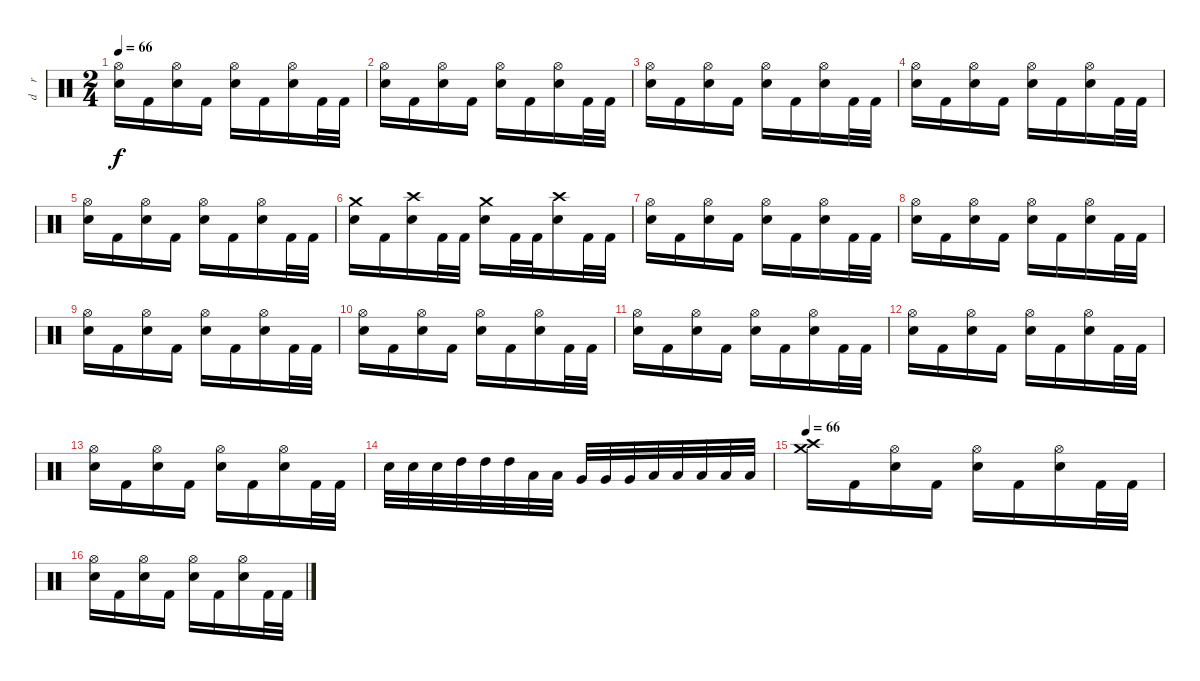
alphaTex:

\track ("d    r     u    m    s" "d    r    ") {instrument percussion}
\staff {score}
\articulation defaults
\ts (2 4)
\tempo 66
\clef neutral
\ks c
("Hi-Hat (open)" "Snare (hit) 2").16{dy f} "Kick (hit) 2".16 ("Hi-Hat (open)" "Snare (hit) 2").16 "Kick (hit) 2".16 ("Hi-Hat (open)" "Snare (hit) 2").16 "Kick (hit) 2".16 ("Hi-Hat (open)" "Snare (hit) 2").16 "Kick (hit) 2".32 "Kick (hit) 2".32 |
("Hi-Hat (open)" "Snare (hit) 2").16 "Kick (hit) 2".16 ("Hi-Hat (open)" "Snare (hit) 2").16 "Kick (hit) 2".16 ("Hi-Hat (open)" "Snare (hit) 2").16 "Kick (hit) 2".16 ("Hi-Hat (open)" "Snare (hit) 2").16 "Kick (hit) 2".32 "Kick (hit) 2".32 |
("Hi-Hat (open)" "Snare (hit) 2").16 "Kick (hit) 2".16 ("Hi-Hat (open)" "Snare (hit) 2").16 "Kick (hit) 2".16 ("Hi-Hat (open)" "Snare (hit) 2").16 "Kick (hit) 2".16 ("Hi-Hat (open)" "Snare (hit) 2").16 "Kick (hit) 2".32 "Kick (hit) 2".32 |
("Hi-Hat (open)" "Snare (hit) 2").16 "Kick (hit) 2".16 ("Hi-Hat (open)" "Snare (hit) 2").16 "Kick (hit) 2".16 ("Hi-Hat (open)" "Snare (hit) 2").16 "Kick (hit) 2".16 ("Hi-Hat (open)" "Snare (hit) 2").16 "Kick (hit) 2".32 "Kick (hit) 2".32 |
("Hi-Hat (open)" "Snare (hit) 2").16 "Kick (hit) 2".16 ("Hi-Hat (open)" "Snare (hit) 2").16 "Kick (hit) 2".16 ("Hi-Hat (open)" "Snare (hit) 2").16 "Kick (hit) 2".16 ("Hi-Hat (open)" "Snare (hit) 2").16 "Kick (hit) 2".32 "Kick (hit) 2".32 |
("Crash medium (hit)" "Snare (hit) 2").16 "Kick (hit) 2".16 ("Crash high (hit)" "Snare (hit) 2").16 "Kick (hit) 2".32 "Kick (hit) 2".32 ("Crash medium (hit)" "Snare (hit) 2").16 "Kick (hit) 2".32 "Kick (hit) 2".32 ("Crash high (hit)" "Snare (hit) 2").16 "Kick (hit) 2".32 "Kick (hit) 2".32 |
("Hi-Hat (open)" "Snare (hit) 2").16 "Kick (hit) 2".16 ("Hi-Hat (open)" "Snare (hit) 2").16 "Kick (hit) 2".16 ("Hi-Hat (open)" "Snare (hit) 2").16 "Kick (hit) 2".16 ("Hi-Hat (open)" "Snare (hit) 2").16 "Kick (hit) 2".32 "Kick (hit) 2".32 |
("Hi-Hat (open)" "Snare (hit) 2").16 "Kick (hit) 2".16 ("Hi-Hat (open)" "Snare (hit) 2").16 "Kick (hit) 2".16 ("Hi-Hat (open)" "Snare (hit) 2").16 "Kick (hit) 2".16 ("Hi-Hat (open)" "Snare (hit) 2").16 "Kick (hit) 2".32 "Kick (hit) 2".32 |
("Hi-Hat (open)" "Snare (hit) 2").16 "Kick (hit) 2".16 ("Hi-Hat (open)" "Snare (hit) 2").16 "Kick (hit) 2".16 ("Hi-Hat (open)" "Snare (hit) 2").16 "Kick (hit) 2".16 ("Hi-Hat (open)" "Snare (hit) 2").16 "Kick (hit) 2".32 "Kick (hit) 2".32 |
("Hi-Hat (open)" "Snare (hit) 2").16 "Kick (hit) 2".16 ("Hi-Hat (open)" "Snare (hit) 2").16 "Kick (hit) 2".16 ("Hi-Hat (open)" "Snare (hit) 2").16 "Kick (hit) 2".16 ("Hi-Hat (open)" "Snare (hit) 2").16 "Kick (hit) 2".32 "Kick (hit) 2".32 |
("Hi-Hat (open)" "Snare (hit) 2").16 "Kick (hit) 2".16 ("Hi-Hat (open)" "Snare (hit) 2").16 "Kick (hit) 2".16 ("Hi-Hat (open)" "Snare (hit) 2").16 "Kick (hit) 2".16 ("Hi-Hat (open)" "Snare (hit) 2").16 "Kick (hit) 2".32 "Kick (hit) 2".32 |
("Hi-Hat (open)" "Snare (hit) 2").16 "Kick (hit) 2".16 ("Hi-Hat (open)" "Snare (hit) 2").16 "Kick (hit) 2".16 ("Hi-Hat (open)" "Snare (hit) 2").16 "Kick (hit) 2".16 ("Hi-Hat (open)" "Snare (hit) 2").16 "Kick (hit) 2".32 "Kick (hit) 2".32 |
("Hi-Hat (open)" "Snare (hit) 2").16 "Kick (hit) 2".16 ("Hi-Hat (open)" "Snare (hit) 2").16 "Kick (hit) 2".16 ("Hi-Hat (open)" "Snare (hit) 2").16 "Kick (hit) 2".16 ("Hi-Hat (open)" "Snare (hit) 2").16 "Kick (hit) 2".32 "Kick (hit) 2".32 |
"Snare (hit) 2".32 "Snare (hit) 2".32 "Snare (hit) 2".32 "High Tom (hit)".32 "High Tom (hit)".32 "High Tom (hit)".32 "Low Tom (hit)".32 "Low Tom (hit)".32 "Very Low Tom (hit)".32 "Very Low Tom (hit)".32 "Very Low Tom (hit)".32 "Low Floor Tom (hit)".32 "Low Floor Tom (hit)".32 "Low Floor Tom (hit)".32 "Low Floor Tom (hit)".32 "Low Floor Tom (hit)".32 |
\tempo 66
("Crash high (hit)" "Crash medium (hit)").16 "Kick (hit) 2".16 ("Hi-Hat (open)" "Snare (hit) 2").16 "Kick (hit) 2".16 ("Hi-Hat (open)" "Snare (hit) 2").16 "Kick (hit) 2".16 ("Hi-Hat (open)" "Snare (hit) 2").16 "Kick (hit) 2".32 "Kick (hit) 2".32 |
("Hi-Hat (open)" "Snare (hit) 2").16 "Kick (hit) 2".16 ("Hi-Hat (open)" "Snare (hit) 2").16 "Kick (hit) 2".16 ("Hi-Hat (open)" "Snare (hit) 2").16 "Kick (hit) 2".16 ("Hi-Hat (open)" "Snare (hit) 2").16 "Kick (hit) 2".32 "Kick (hit) 2".32
